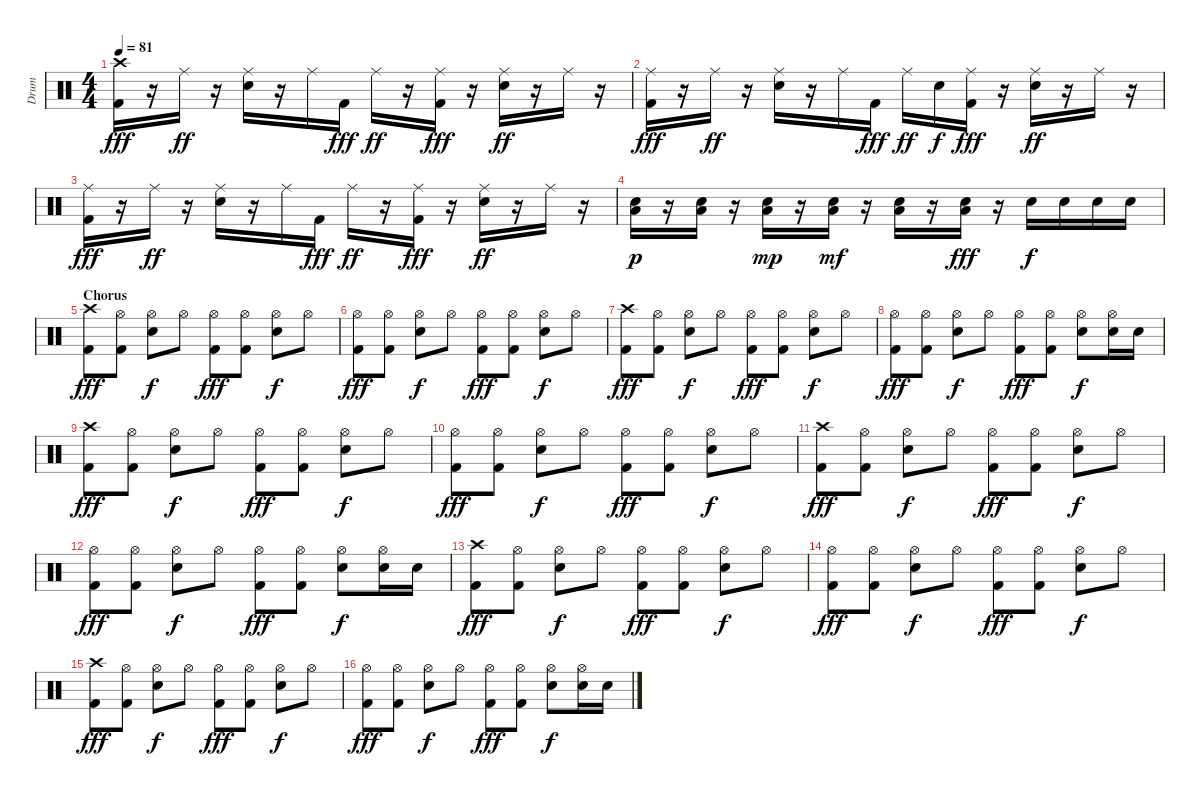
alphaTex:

\track ("Drum" "Drum") {instrument percussion}
\staff {score}
\articulation defaults
\ts (4 4)
\tempo 81
\clef neutral
\ks c
("Crash high (hit)" "Kick (hit) 2").16{dy fff} r.16 "Ride (middle)".16{dy ff} r.16 ("Ride (middle)" "Electric Snare (hit)").16 r.16 "Ride (middle)".16 "Kick (hit) 2".16{dy fff} "Ride (middle)".16{dy ff} r.16 ("Ride (middle)" "Kick (hit) 2").16{dy fff} r.16 ("Ride (middle)" "Electric Snare (hit)").16{dy ff} r.16 "Ride (middle)".16 r.16 |
("Ride (middle)" "Kick (hit) 2").16{dy fff} r.16 "Ride (middle)".16{dy ff} r.16 ("Ride (middle)" "Electric Snare (hit)").16 r.16 "Ride (middle)".16 "Kick (hit) 2".16{dy fff} "Ride (middle)".16{dy ff} "Electric Snare (hit)".16{dy f} ("Ride (middle)" "Kick (hit) 2").16{dy fff} r.16 ("Ride (middle)" "Electric Snare (hit)").16{dy ff} r.16 "Ride (middle)".16 r.16 |
("Ride (middle)" "Kick (hit) 2").16{dy fff} r.16 "Ride (middle)".16{dy ff} r.16 ("Ride (middle)" "Electric Snare (hit)").16 r.16 "Ride (middle)".16 "Kick (hit) 2".16{dy fff} "Ride (middle)".16{dy ff} r.16 ("Ride (middle)" "Kick (hit) 2").16{dy fff} r.16 ("Ride (middle)" "Electric Snare (hit)").16{dy ff} r.16 "Ride (middle)".16 r.16 |
("Low Floor Tom (hit)" "Electric Snare (hit)").16{dy p} r.16 ("Low Floor Tom (hit)" "Electric Snare (hit)").16 r.16 ("Low Floor Tom (hit)" "Electric Snare (hit)").16{dy mp} r.16 ("Low Floor Tom (hit)" "Electric Snare (hit)").16{dy mf} r.16 ("Low Floor Tom (hit)" "Electric Snare (hit)").16 r.16 ("Low Floor Tom (hit)" "Electric Snare (hit)").16{dy fff} r.16 "Electric Snare (hit)".16{dy f} "Electric Snare (hit)".16 "Electric Snare (hit)".16 "Electric Snare (hit)".16 |
\section ("" "Chorus ")
("Crash high (hit)" "Kick (hit) 2").8{dy fff} ("Hi-Hat (open)" "Kick (hit) 2").8 ("Hi-Hat (open)" "Electric Snare (hit)").8{dy f} "Hi-Hat (open)".8 ("Hi-Hat (open)" "Kick (hit) 2").8{dy fff} ("Hi-Hat (open)" "Kick (hit) 2").8 ("Hi-Hat (open)" "Electric Snare (hit)").8{dy f} "Hi-Hat (open)".8 |
("Hi-Hat (open)" "Kick (hit) 2").8{dy fff} ("Hi-Hat (open)" "Kick (hit) 2").8 ("Hi-Hat (open)" "Electric Snare (hit)").8{dy f} "Hi-Hat (open)".8 ("Hi-Hat (open)" "Kick (hit) 2").8{dy fff} ("Hi-Hat (open)" "Kick (hit) 2").8 ("Hi-Hat (open)" "Electric Snare (hit)").8{dy f} "Hi-Hat (open)".8 |
("Crash high (hit)" "Kick (hit) 2").8{dy fff} ("Hi-Hat (open)" "Kick (hit) 2").8 ("Hi-Hat (open)" "Electric Snare (hit)").8{dy f} "Hi-Hat (open)".8 ("Hi-Hat (open)" "Kick (hit) 2").8{dy fff} ("Hi-Hat (open)" "Kick (hit) 2").8 ("Hi-Hat (open)" "Electric Snare (hit)").8{dy f} "Hi-Hat (open)".8 |
("Hi-Hat (open)" "Kick (hit) 2").8{dy fff} ("Hi-Hat (open)" "Kick (hit) 2").8 ("Hi-Hat (open)" "Electric Snare (hit)").8{dy f} "Hi-Hat (open)".8 ("Hi-Hat (open)" "Kick (hit) 2").8{dy fff} ("Hi-Hat (open)" "Kick (hit) 2").8 ("Hi-Hat (open)" "Electric Snare (hit)").8{dy f} ("Hi-Hat (open)" "Electric Snare (hit)").16 "Electric Snare (hit)".16 |
("Crash high (hit)" "Kick (hit) 2").8{dy fff} ("Hi-Hat (open)" "Kick (hit) 2").8 ("Hi-Hat (open)" "Electric Snare (hit)").8{dy f} "Hi-Hat (open)".8 ("Hi-Hat (open)" "Kick (hit) 2").8{dy fff} ("Hi-Hat (open)" "Kick (hit) 2").8 ("Hi-Hat (open)" "Electric Snare (hit)").8{dy f} "Hi-Hat (open)".8 |
("Hi-Hat (open)" "Kick (hit) 2").8{dy fff} ("Hi-Hat (open)" "Kick (hit) 2").8 ("Hi-Hat (open)" "Electric Snare (hit)").8{dy f} "Hi-Hat (open)".8 ("Hi-Hat (open)" "Kick (hit) 2").8{dy fff} ("Hi-Hat (open)" "Kick (hit) 2").8 ("Hi-Hat (open)" "Electric Snare (hit)").8{dy f} "Hi-Hat (open)".8 |
("Crash high (hit)" "Kick (hit) 2").8{dy fff} ("Hi-Hat (open)" "Kick (hit) 2").8 ("Hi-Hat (open)" "Electric Snare (hit)").8{dy f} "Hi-Hat (open)".8 ("Hi-Hat (open)" "Kick (hit) 2").8{dy fff} ("Hi-Hat (open)" "Kick (hit) 2").8 ("Hi-Hat (open)" "Electric Snare (hit)").8{dy f} "Hi-Hat (open)".8 |
("Hi-Hat (open)" "Kick (hit) 2").8{dy fff} ("Hi-Hat (open)" "Kick (hit) 2").8 ("Hi-Hat (open)" "Electric Snare (hit)").8{dy f} "Hi-Hat (open)".8 ("Hi-Hat (open)" "Kick (hit) 2").8{dy fff} ("Hi-Hat (open)" "Kick (hit) 2").8 ("Hi-Hat (open)" "Electric Snare (hit)").8{dy f} ("Hi-Hat (open)" "Electric Snare (hit)").16 "Electric Snare (hit)".16 |
("Crash high (hit)" "Kick (hit) 2").8{dy fff} ("Hi-Hat (open)" "Kick (hit) 2").8 ("Hi-Hat (open)" "Electric Snare (hit)").8{dy f} "Hi-Hat (open)".8 ("Hi-Hat (open)" "Kick (hit) 2").8{dy fff} ("Hi-Hat (open)" "Kick (hit) 2").8 ("Hi-Hat (open)" "Electric Snare (hit)").8{dy f} "Hi-Hat (open)".8 |
("Hi-Hat (open)" "Kick (hit) 2").8{dy fff} ("Hi-Hat (open)" "Kick (hit) 2").8 ("Hi-Hat (open)" "Electric Snare (hit)").8{dy f} "Hi-Hat (open)".8 ("Hi-Hat (open)" "Kick (hit) 2").8{dy fff} ("Hi-Hat (open)" "Kick (hit) 2").8 ("Hi-Hat (open)" "Electric Snare (hit)").8{dy f} "Hi-Hat (open)".8 |
("Crash high (hit)" "Kick (hit) 2").8{dy fff} ("Hi-Hat (open)" "Kick (hit) 2").8 ("Hi-Hat (open)" "Electric Snare (hit)").8{dy f} "Hi-Hat (open)".8 ("Hi-Hat (open)" "Kick (hit) 2").8{dy fff} ("Hi-Hat (open)" "Kick (hit) 2").8 ("Hi-Hat (open)" "Electric Snare (hit)").8{dy f} "Hi-Hat (open)".8 |
("Hi-Hat (open)" "Kick (hit) 2").8{dy fff} ("Hi-Hat (open)" "Kick (hit) 2").8 ("Hi-Hat (open)" "Electric Snare (hit)").8{dy f} "Hi-Hat (open)".8 ("Hi-Hat (open)" "Kick (hit) 2").8{dy fff} ("Hi-Hat (open)" "Kick (hit) 2").8 ("Hi-Hat (open)" "Electric Snare (hit)").8{dy f} ("Hi-Hat (open)" "Electric Snare (hit)").16 "Electric Snare (hit)".16
